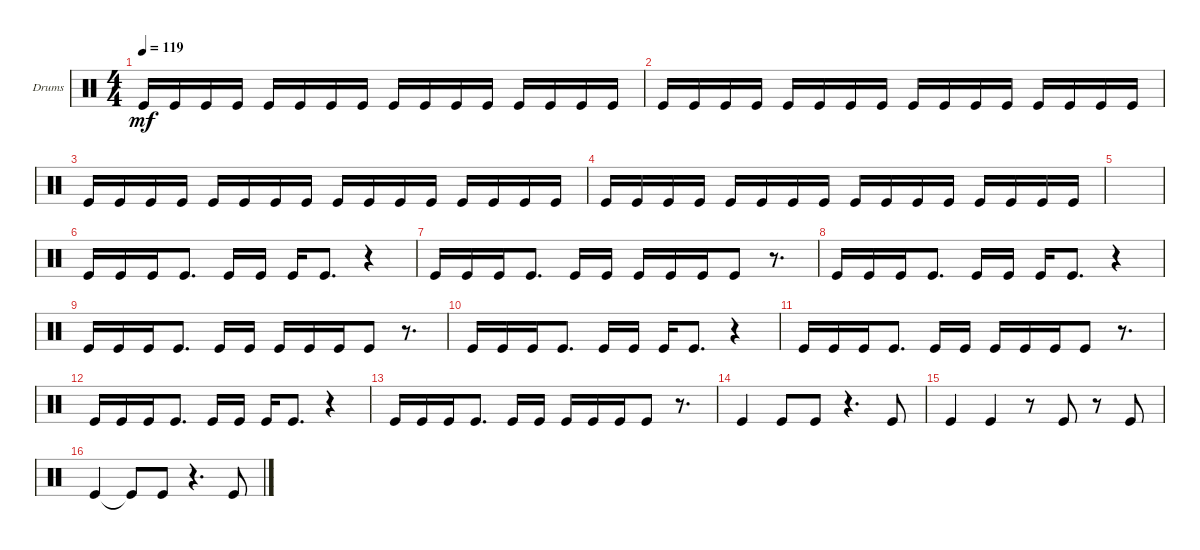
\defaultSystemsLayout 4
\bracketExtendMode groupsimilarinstruments
\firstSystemTrackNameOrientation horizontal
\otherSystemsTrackNameOrientation horizontal
\track ("Kick (hit)" "Drums") {instrument percussion}
\staff {score}
\articulation defaults
\ts (4 4)
\tempo 119
\clef neutral
\scale
0.333333
\ks c "Kick (hit)".16{dy mf} "Kick (hit)".16 "Kick (hit)".16 "Kick (hit)".16 "Kick (hit)".16 "Kick (hit)".16 "Kick (hit)".16 "Kick (hit)".16 "Kick (hit)".16 "Kick (hit)".16 "Kick (hit)".16 "Kick (hit)".16 "Kick (hit)".16 "Kick (hit)".16 "Kick (hit)".16 "Kick (hit)".16
|
\scale
0.333333 "Kick (hit)".16 "Kick (hit)".16 "Kick (hit)".16 "Kick (hit)".16 "Kick (hit)".16 "Kick (hit)".16 "Kick (hit)".16 "Kick (hit)".16 "Kick (hit)".16 "Kick (hit)".16 "Kick (hit)".16 "Kick (hit)".16 "Kick (hit)".16 "Kick (hit)".16 "Kick (hit)".16 "Kick (hit)".16 |
\scale
0.333333 "Kick (hit)".16 "Kick (hit)".16 "Kick (hit)".16 "Kick (hit)".16 "Kick (hit)".16 "Kick (hit)".16 "Kick (hit)".16 "Kick (hit)".16 "Kick (hit)".16 "Kick (hit)".16 "Kick (hit)".16 "Kick (hit)".16 "Kick (hit)".16 "Kick (hit)".16 "Kick (hit)".16 "Kick (hit)".16 |
\scale
0.333333 "Kick (hit)".16 "Kick (hit)".16 "Kick (hit)".16 "Kick (hit)".16 "Kick (hit)".16 "Kick (hit)".16 "Kick (hit)".16 "Kick (hit)".16 "Kick (hit)".16 "Kick (hit)".16 "Kick (hit)".16 "Kick (hit)".16 "Kick (hit)".16 "Kick (hit)".16 "Kick (hit)".16 "Kick (hit)".16 |
\scale
0.333333 |
\scale
0.333333 "Kick (hit)".16 "Kick (hit)".16 "Kick (hit)".16 "Kick (hit)".8{d} "Kick (hit)".16 "Kick (hit)".16 "Kick (hit)".16 "Kick (hit)".8{d} r.4 |
\scale
0.333333 "Kick (hit)".16 "Kick (hit)".16 "Kick (hit)".16 "Kick (hit)".8{d} "Kick (hit)".16 "Kick (hit)".16 "Kick (hit)".16 "Kick (hit)".16 "Kick (hit)".16 "Kick (hit)".8 r.8{d} |
\scale
0.333333 "Kick (hit)".16 "Kick (hit)".16 "Kick (hit)".16 "Kick (hit)".8{d} "Kick (hit)".16 "Kick (hit)".16 "Kick (hit)".16 "Kick (hit)".8{d} r.4 |
\scale
0.333333 "Kick (hit)".16 "Kick (hit)".16 "Kick (hit)".16 "Kick (hit)".8{d} "Kick (hit)".16 "Kick (hit)".16 "Kick (hit)".16 "Kick (hit)".16 "Kick (hit)".16 "Kick (hit)".8 r.8{d} |
\scale
0.333333 "Kick (hit)".16 "Kick (hit)".16 "Kick (hit)".16 "Kick (hit)".8{d} "Kick (hit)".16 "Kick (hit)".16 "Kick (hit)".16 "Kick (hit)".8{d} r.4 |
\scale
0.333333 "Kick (hit)".16 "Kick (hit)".16 "Kick (hit)".16 "Kick (hit)".8{d} "Kick (hit)".16 "Kick (hit)".16 "Kick (hit)".16 "Kick (hit)".16 "Kick (hit)".16 "Kick (hit)".8 r.8{d} |
\scale
0.333333 "Kick (hit)".16 "Kick (hit)".16 "Kick (hit)".16 "Kick (hit)".8{d} "Kick (hit)".16 "Kick (hit)".16 "Kick (hit)".16 "Kick (hit)".8{d} r.4 |
\scale
0.333333 "Kick (hit)".16 "Kick (hit)".16 "Kick (hit)".16 "Kick (hit)".8{d} "Kick (hit)".16 "Kick (hit)".16 "Kick (hit)".16 "Kick (hit)".16 "Kick (hit)".16 "Kick (hit)".8 r.8{d} |
\scale
0.333333 "Kick (hit)".4 "Kick (hit)".8 "Kick (hit)".8 r.4{d} "Kick (hit)".8 |
\scale
0.333333 "Kick (hit)".4 "Kick (hit)".4 r.8 "Kick (hit)".8 r.8 "Kick (hit)".8 |
\scale
0.333333 "Kick (hit)".4 "Kick (hit)"{t}.8 "Kick (hit)".8 r.4{d} "Kick (hit)".8
